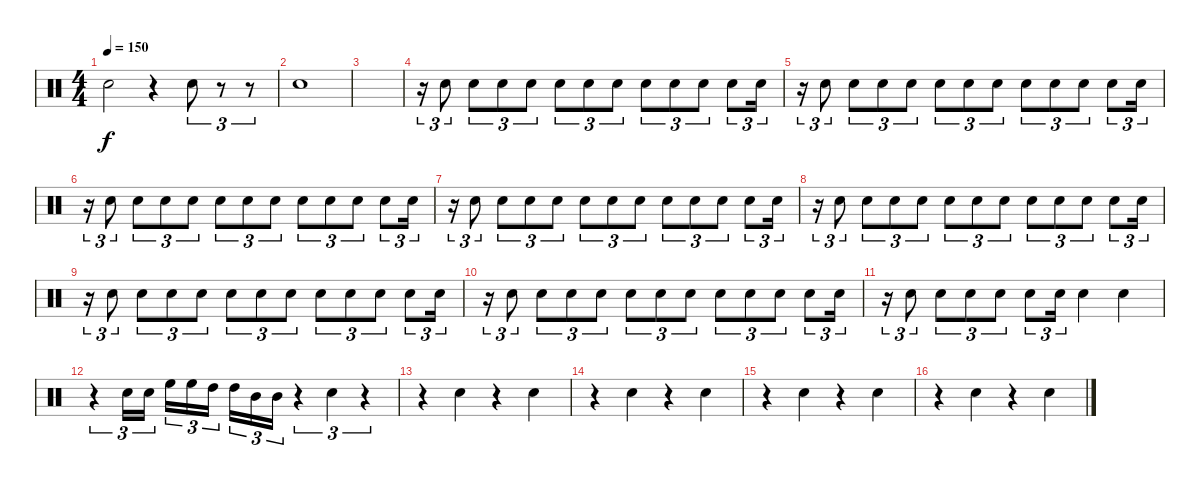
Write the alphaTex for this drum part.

\track "" {instrument percussion}
\staff {score}
\articulation defaults
\ts (4 4)
\tempo 150
\clef neutral
\ks c "Electric Snare (hit)".2{dy f}
r.4 "Electric Snare (hit)".8{tu (3 2)} r.8{tu (3 2)} r.8{tu (3 2)} |
"Electric Snare (hit)".1 |
|
r.16{tu (3 2)} "Electric Snare (hit)".8{tu (3 2)} "Electric Snare (hit)".8{tu (3 2)} "Electric Snare (hit)".8{tu (3 2)} "Electric Snare (hit)".8{tu (3 2)} "Electric Snare (hit)".8{tu (3 2)} "Electric Snare (hit)".8{tu (3 2)} "Electric Snare (hit)".8{tu (3 2)} "Electric Snare (hit)".8{tu (3 2)} "Electric Snare (hit)".8{tu (3 2)} "Electric Snare (hit)".8{tu (3 2)} "Electric Snare (hit)".8{tu (3 2)} "Electric Snare (hit)".16{tu (3 2)} |
r.16{tu (3 2)} "Electric Snare (hit)".8{tu (3 2)} "Electric Snare (hit)".8{tu (3 2)} "Electric Snare (hit)".8{tu (3 2)} "Electric Snare (hit)".8{tu (3 2)} "Electric Snare (hit)".8{tu (3 2)} "Electric Snare (hit)".8{tu (3 2)} "Electric Snare (hit)".8{tu (3 2)} "Electric Snare (hit)".8{tu (3 2)} "Electric Snare (hit)".8{tu (3 2)} "Electric Snare (hit)".8{tu (3 2)} "Electric Snare (hit)".8{tu (3 2)} "Electric Snare (hit)".16{tu (3 2)} |
r.16{tu (3 2)} "Electric Snare (hit)".8{tu (3 2)} "Electric Snare (hit)".8{tu (3 2)} "Electric Snare (hit)".8{tu (3 2)} "Electric Snare (hit)".8{tu (3 2)} "Electric Snare (hit)".8{tu (3 2)} "Electric Snare (hit)".8{tu (3 2)} "Electric Snare (hit)".8{tu (3 2)} "Electric Snare (hit)".8{tu (3 2)} "Electric Snare (hit)".8{tu (3 2)} "Electric Snare (hit)".8{tu (3 2)} "Electric Snare (hit)".8{tu (3 2)} "Electric Snare (hit)".16{tu (3 2)} |
r.16{tu (3 2)} "Electric Snare (hit)".8{tu (3 2)} "Electric Snare (hit)".8{tu (3 2)} "Electric Snare (hit)".8{tu (3 2)} "Electric Snare (hit)".8{tu (3 2)} "Electric Snare (hit)".8{tu (3 2)} "Electric Snare (hit)".8{tu (3 2)} "Electric Snare (hit)".8{tu (3 2)} "Electric Snare (hit)".8{tu (3 2)} "Electric Snare (hit)".8{tu (3 2)} "Electric Snare (hit)".8{tu (3 2)} "Electric Snare (hit)".8{tu (3 2)} "Electric Snare (hit)".16{tu (3 2)} |
r.16{tu (3 2)} "Electric Snare (hit)".8{tu (3 2)} "Electric Snare (hit)".8{tu (3 2)} "Electric Snare (hit)".8{tu (3 2)} "Electric Snare (hit)".8{tu (3 2)} "Electric Snare (hit)".8{tu (3 2)} "Electric Snare (hit)".8{tu (3 2)} "Electric Snare (hit)".8{tu (3 2)} "Electric Snare (hit)".8{tu (3 2)} "Electric Snare (hit)".8{tu (3 2)} "Electric Snare (hit)".8{tu (3 2)} "Electric Snare (hit)".8{tu (3 2)} "Electric Snare (hit)".16{tu (3 2)} |
r.16{tu (3 2)} "Electric Snare (hit)".8{tu (3 2)} "Electric Snare (hit)".8{tu (3 2)} "Electric Snare (hit)".8{tu (3 2)} "Electric Snare (hit)".8{tu (3 2)} "Electric Snare (hit)".8{tu (3 2)} "Electric Snare (hit)".8{tu (3 2)} "Electric Snare (hit)".8{tu (3 2)} "Electric Snare (hit)".8{tu (3 2)} "Electric Snare (hit)".8{tu (3 2)} "Electric Snare (hit)".8{tu (3 2)} "Electric Snare (hit)".8{tu (3 2)} "Electric Snare (hit)".16{tu (3 2)} |
r.16{tu (3 2)} "Electric Snare (hit)".8{tu (3 2)} "Electric Snare (hit)".8{tu (3 2)} "Electric Snare (hit)".8{tu (3 2)} "Electric Snare (hit)".8{tu (3 2)} "Electric Snare (hit)".8{tu (3 2)} "Electric Snare (hit)".8{tu (3 2)} "Electric Snare (hit)".8{tu (3 2)} "Electric Snare (hit)".8{tu (3 2)} "Electric Snare (hit)".8{tu (3 2)} "Electric Snare (hit)".8{tu (3 2)} "Electric Snare (hit)".8{tu (3 2)} "Electric Snare (hit)".16{tu (3 2)} |
r.16{tu (3 2)} "Electric Snare (hit)".8{tu (3 2)} "Electric Snare (hit)".8{tu (3 2)} "Electric Snare (hit)".8{tu (3 2)} "Electric Snare (hit)".8{tu (3 2)} "Electric Snare (hit)".8{tu (3 2)} "Electric Snare (hit)".16{tu (3 2)} "Electric Snare (hit)".4 "Electric Snare (hit)".4 |
r.4{tu (3 2)} "Electric Snare (hit)".16{tu (3 2)} "Electric Snare (hit)".16{tu (3 2)} "High Floor Tom (hit)".16{tu (3 2)} "High Floor Tom (hit)".16{tu (3 2)} "High Tom (hit)".16{tu (3 2)} "High Tom (hit)".16{tu (3 2)} "Mid Tom (hit)".16{tu (3 2)} "Mid Tom (hit)".16{tu (3 2)} r.4{tu (3 2)} "Electric Snare (hit)".4{tu (3 2)} r.4{tu (3 2)} |
r.4 "Electric Snare (hit)".4 r.4 "Electric Snare (hit)".4 |
r.4 "Electric Snare (hit)".4 r.4 "Electric Snare (hit)".4 |
r.4 "Electric Snare (hit)".4 r.4 "Electric Snare (hit)".4 |
r.4 "Electric Snare (hit)".4 r.4 "Electric Snare (hit)".4
